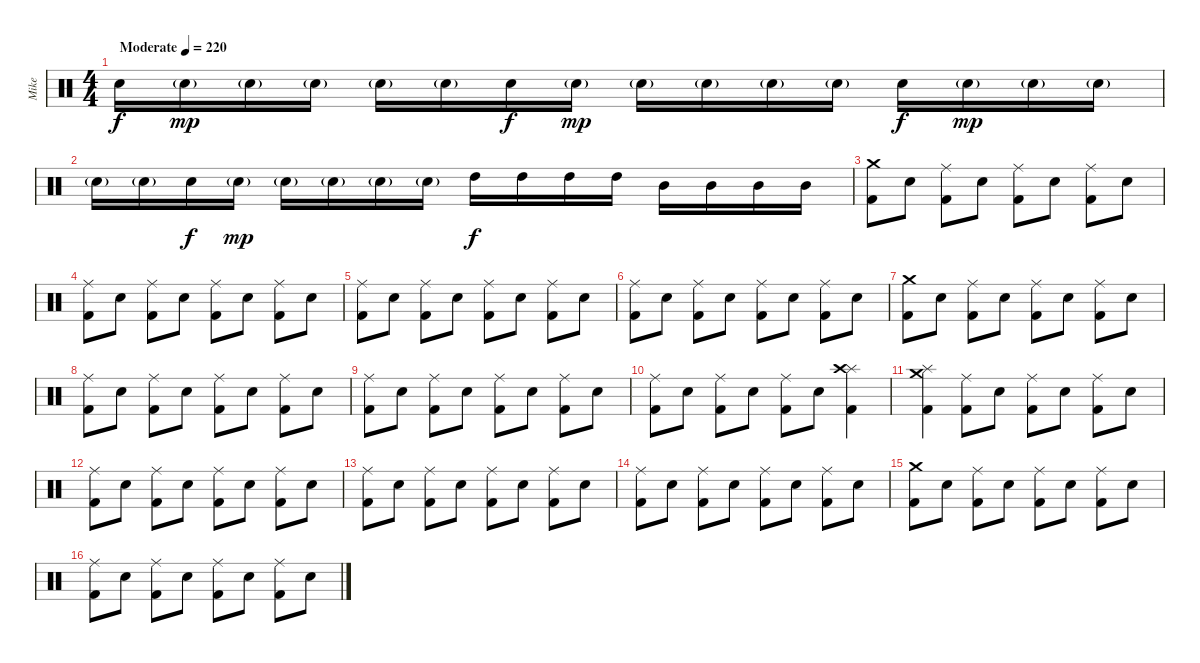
\track ("Mike" "Mike") {instrument percussion}
\staff {score}
\articulation defaults
\ts (4 4)
\tempo (220 "Moderate")
\clef neutral
\ks c "Electric Snare (hit)".16{dy f} "Electric Snare (hit)"{g}.16{dy mp} "Electric Snare (hit)"{g}.16 "Electric Snare (hit)"{g}.16 "Electric Snare (hit)"{g}.16 "Electric Snare (hit)"{g}.16 "Electric Snare (hit)".16{dy f} "Electric Snare (hit)"{g}.16{dy mp} "Electric Snare (hit)"{g}.16 "Electric Snare (hit)"{g}.16 "Electric Snare (hit)"{g}.16 "Electric Snare (hit)"{g}.16 "Electric Snare (hit)".16{dy f} "Electric Snare (hit)"{g}.16{dy mp} "Electric Snare (hit)"{g}.16 "Electric Snare (hit)"{g}.16
|
"Electric Snare (hit)"{g}.16 "Electric Snare (hit)"{g}.16 "Electric Snare (hit)".16{dy f} "Electric Snare (hit)"{g}.16{dy mp} "Electric Snare (hit)"{g}.16 "Electric Snare (hit)"{g}.16 "Electric Snare (hit)"{g}.16 "Electric Snare (hit)"{g}.16 "High Tom (hit)".16{dy f} "High Tom (hit)".16 "High Tom (hit)".16 "High Tom (hit)".16 "Mid Tom (hit)".16 "Mid Tom (hit)".16 "Mid Tom (hit)".16 "Mid Tom (hit)".16 |
("Crash medium (hit)" "Kick (hit) 2").8 "Electric Snare (hit)".8 ("Ride (middle)" "Kick (hit) 2").8 "Electric Snare (hit)".8 ("Ride (middle)" "Kick (hit) 2").8 "Electric Snare (hit)".8 ("Ride (middle)" "Kick (hit) 2").8 "Electric Snare (hit)".8 |
("Ride (middle)" "Kick (hit) 2").8 "Electric Snare (hit)".8 ("Ride (middle)" "Kick (hit) 2").8 "Electric Snare (hit)".8 ("Ride (middle)" "Kick (hit) 2").8 "Electric Snare (hit)".8 ("Ride (middle)" "Kick (hit) 2").8 "Electric Snare (hit)".8 |
("Ride (middle)" "Kick (hit) 2").8 "Electric Snare (hit)".8 ("Ride (middle)" "Kick (hit) 2").8 "Electric Snare (hit)".8 ("Ride (middle)" "Kick (hit) 2").8 "Electric Snare (hit)".8 ("Ride (middle)" "Kick (hit) 2").8 "Electric Snare (hit)".8 |
("Ride (middle)" "Kick (hit) 2").8 "Electric Snare (hit)".8 ("Ride (middle)" "Kick (hit) 2").8 "Electric Snare (hit)".8 ("Ride (middle)" "Kick (hit) 2").8 "Electric Snare (hit)".8 ("Ride (middle)" "Kick (hit) 2").8 "Electric Snare (hit)".8 |
("Crash medium (hit)" "Kick (hit) 2").8 "Electric Snare (hit)".8 ("Ride (middle)" "Kick (hit) 2").8 "Electric Snare (hit)".8 ("Ride (middle)" "Kick (hit) 2").8 "Electric Snare (hit)".8 ("Ride (middle)" "Kick (hit) 2").8 "Electric Snare (hit)".8 |
("Ride (middle)" "Kick (hit) 2").8 "Electric Snare (hit)".8 ("Ride (middle)" "Kick (hit) 2").8 "Electric Snare (hit)".8 ("Ride (middle)" "Kick (hit) 2").8 "Electric Snare (hit)".8 ("Ride (middle)" "Kick (hit) 2").8 "Electric Snare (hit)".8 |
("Ride (middle)" "Kick (hit) 2").8 "Electric Snare (hit)".8 ("Ride (middle)" "Kick (hit) 2").8 "Electric Snare (hit)".8 ("Ride (middle)" "Kick (hit) 2").8 "Electric Snare (hit)".8 ("Ride (middle)" "Kick (hit) 2").8 "Electric Snare (hit)".8 |
("Ride (middle)" "Kick (hit) 2").8 "Electric Snare (hit)".8 ("Ride (middle)" "Kick (hit) 2").8 "Electric Snare (hit)".8 ("Ride (middle)" "Kick (hit) 2").8 "Electric Snare (hit)".8 ("Splash (hit)" "Crash high (hit)" "Kick (hit) 2").4 |
("Crash medium (hit)" "Splash (hit)" "Kick (hit) 2").4 ("Ride (middle)" "Kick (hit) 2").8 "Electric Snare (hit)".8 ("Ride (middle)" "Kick (hit) 2").8 "Electric Snare (hit)".8 ("Ride (middle)" "Kick (hit) 2").8 "Electric Snare (hit)".8 |
("Ride (middle)" "Kick (hit) 2").8 "Electric Snare (hit)".8 ("Ride (middle)" "Kick (hit) 2").8 "Electric Snare (hit)".8 ("Ride (middle)" "Kick (hit) 2").8 "Electric Snare (hit)".8 ("Ride (middle)" "Kick (hit) 2").8 "Electric Snare (hit)".8 |
("Ride (middle)" "Kick (hit) 2").8 "Electric Snare (hit)".8 ("Ride (middle)" "Kick (hit) 2").8 "Electric Snare (hit)".8 ("Ride (middle)" "Kick (hit) 2").8 "Electric Snare (hit)".8 ("Ride (middle)" "Kick (hit) 2").8 "Electric Snare (hit)".8 |
("Ride (middle)" "Kick (hit) 2").8 "Electric Snare (hit)".8 ("Ride (middle)" "Kick (hit) 2").8 "Electric Snare (hit)".8 ("Ride (middle)" "Kick (hit) 2").8 "Electric Snare (hit)".8 ("Ride (middle)" "Kick (hit) 2").8 "Electric Snare (hit)".8 |
("Crash medium (hit)" "Kick (hit) 2").8 "Electric Snare (hit)".8 ("Ride (middle)" "Kick (hit) 2").8 "Electric Snare (hit)".8 ("Ride (middle)" "Kick (hit) 2").8 "Electric Snare (hit)".8 ("Ride (middle)" "Kick (hit) 2").8 "Electric Snare (hit)".8 |
("Ride (middle)" "Kick (hit) 2").8 "Electric Snare (hit)".8 ("Ride (middle)" "Kick (hit) 2").8 "Electric Snare (hit)".8 ("Ride (middle)" "Kick (hit) 2").8 "Electric Snare (hit)".8 ("Ride (middle)" "Kick (hit) 2").8 "Electric Snare (hit)".8
